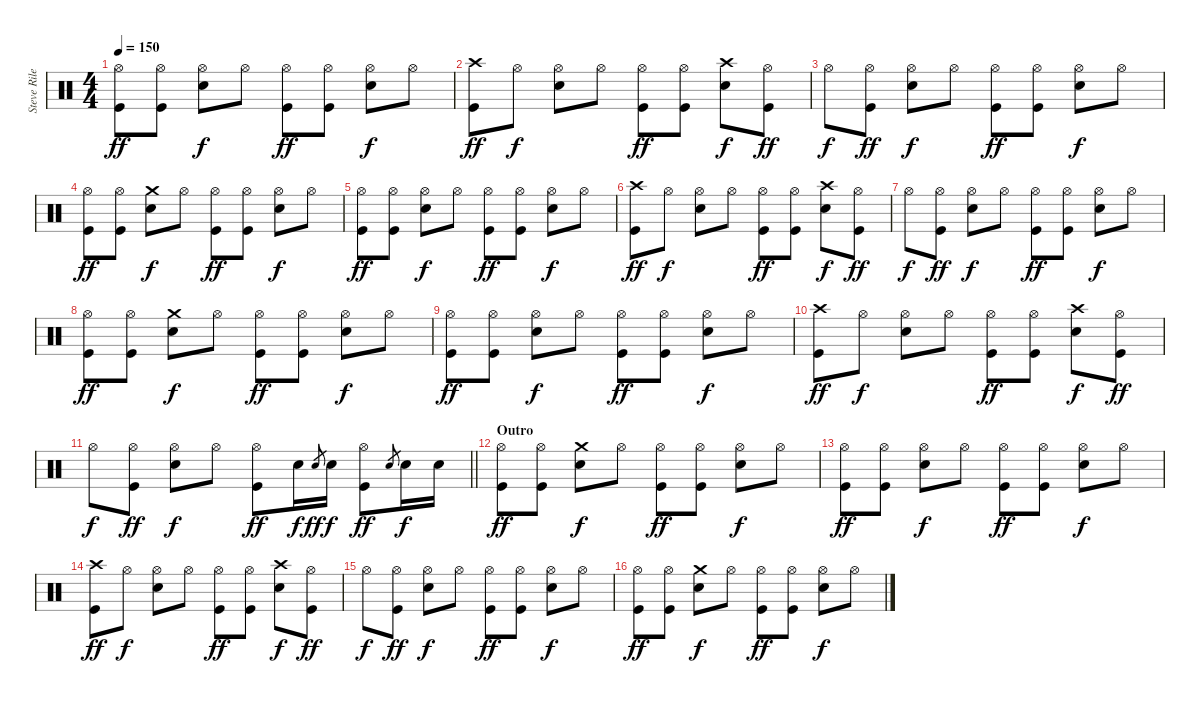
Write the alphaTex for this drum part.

\track ("Steve Riley" "Steve Rile") {instrument percussion}
\staff {score}
\articulation defaults
\ts (4 4)
\tempo 150
\clef neutral
\ks c
("Hi-Hat (open)" "Kick (hit)").8{dy ff} ("Hi-Hat (open)" "Kick (hit)").8 ("Hi-Hat (open)" "Snare (hit) 2").8{dy f} "Hi-Hat (open)".8 ("Hi-Hat (open)" "Kick (hit)").8{dy ff} ("Hi-Hat (open)" "Kick (hit)").8 ("Hi-Hat (open)" "Snare (hit) 2").8{dy f} "Hi-Hat (open)".8 |
("Crash high (hit)" "Kick (hit)").8{dy ff} "Hi-Hat (open)".8{dy f} ("Hi-Hat (open)" "Snare (hit) 2").8 "Hi-Hat (open)".8 ("Hi-Hat (open)" "Kick (hit)").8{dy ff} ("Hi-Hat (open)" "Kick (hit)").8 ("Crash high (hit)" "Snare (hit) 2").8{dy f} ("Hi-Hat (open)" "Kick (hit)").8{dy ff} |
"Hi-Hat (open)".8{dy f} ("Hi-Hat (open)" "Kick (hit)").8{dy ff} ("Hi-Hat (open)" "Snare (hit) 2").8{dy f} "Hi-Hat (open)".8 ("Hi-Hat (open)" "Kick (hit)").8{dy ff} ("Hi-Hat (open)" "Kick (hit)").8 ("Hi-Hat (open)" "Snare (hit) 2").8{dy f} "Hi-Hat (open)".8 |
("Hi-Hat (open)" "Kick (hit)").8{dy ff} ("Hi-Hat (open)" "Kick (hit)").8 ("Crash medium (hit)" "Snare (hit) 2").8{dy f} "Hi-Hat (open)".8 ("Hi-Hat (open)" "Kick (hit)").8{dy ff} ("Hi-Hat (open)" "Kick (hit)").8 ("Hi-Hat (open)" "Snare (hit) 2").8{dy f} "Hi-Hat (open)".8 |
("Hi-Hat (open)" "Kick (hit)").8{dy ff} ("Hi-Hat (open)" "Kick (hit)").8 ("Hi-Hat (open)" "Snare (hit) 2").8{dy f} "Hi-Hat (open)".8 ("Hi-Hat (open)" "Kick (hit)").8{dy ff} ("Hi-Hat (open)" "Kick (hit)").8 ("Hi-Hat (open)" "Snare (hit) 2").8{dy f} "Hi-Hat (open)".8 |
("Crash high (hit)" "Kick (hit)").8{dy ff} "Hi-Hat (open)".8{dy f} ("Hi-Hat (open)" "Snare (hit) 2").8 "Hi-Hat (open)".8 ("Hi-Hat (open)" "Kick (hit)").8{dy ff} ("Hi-Hat (open)" "Kick (hit)").8 ("Crash high (hit)" "Snare (hit) 2").8{dy f} ("Hi-Hat (open)" "Kick (hit)").8{dy ff} |
"Hi-Hat (open)".8{dy f} ("Hi-Hat (open)" "Kick (hit)").8{dy ff} ("Hi-Hat (open)" "Snare (hit) 2").8{dy f} "Hi-Hat (open)".8 ("Hi-Hat (open)" "Kick (hit)").8{dy ff} ("Hi-Hat (open)" "Kick (hit)").8 ("Hi-Hat (open)" "Snare (hit) 2").8{dy f} "Hi-Hat (open)".8 |
("Hi-Hat (open)" "Kick (hit)").8{dy ff} ("Hi-Hat (open)" "Kick (hit)").8 ("Crash medium (hit)" "Snare (hit) 2").8{dy f} "Hi-Hat (open)".8 ("Hi-Hat (open)" "Kick (hit)").8{dy ff} ("Hi-Hat (open)" "Kick (hit)").8 ("Hi-Hat (open)" "Snare (hit) 2").8{dy f} "Hi-Hat (open)".8 |
("Hi-Hat (open)" "Kick (hit)").8{dy ff} ("Hi-Hat (open)" "Kick (hit)").8 ("Hi-Hat (open)" "Snare (hit) 2").8{dy f} "Hi-Hat (open)".8 ("Hi-Hat (open)" "Kick (hit)").8{dy ff} ("Hi-Hat (open)" "Kick (hit)").8 ("Hi-Hat (open)" "Snare (hit) 2").8{dy f} "Hi-Hat (open)".8 |
("Crash high (hit)" "Kick (hit)").8{dy ff} "Hi-Hat (open)".8{dy f} ("Hi-Hat (open)" "Snare (hit) 2").8 "Hi-Hat (open)".8 ("Hi-Hat (open)" "Kick (hit)").8{dy ff} ("Hi-Hat (open)" "Kick (hit)").8 ("Crash high (hit)" "Snare (hit) 2").8{dy f} ("Hi-Hat (open)" "Kick (hit)").8{dy ff} |
\barLineRight lightlight "Hi-Hat (open)".8{dy f}
("Hi-Hat (open)" "Kick (hit)").8{dy ff} ("Hi-Hat (open)" "Snare (hit) 2").8{dy f} "Hi-Hat (open)".8 ("Hi-Hat (open)" "Kick (hit)").8{dy ff} "Snare (hit) 2".16{dy f} "Snare (hit) 2".8{gr dy ff} "Snare (hit) 2".16{dy f} ("Hi-Hat (open)" "Kick (hit)").8{dy ff} "Snare (hit) 2".8{gr} "Snare (hit) 2".16{dy f} "Snare (hit) 2".16 |
\section ("" "Outro")
("Hi-Hat (open)" "Kick (hit)").8{dy ff} ("Hi-Hat (open)" "Kick (hit)").8 ("Crash medium (hit)" "Snare (hit) 2").8{dy f} "Hi-Hat (open)".8 ("Hi-Hat (open)" "Kick (hit)").8{dy ff} ("Hi-Hat (open)" "Kick (hit)").8 ("Hi-Hat (open)" "Snare (hit) 2").8{dy f} "Hi-Hat (open)".8 |
("Hi-Hat (open)" "Kick (hit)").8{dy ff} ("Hi-Hat (open)" "Kick (hit)").8 ("Hi-Hat (open)" "Snare (hit) 2").8{dy f} "Hi-Hat (open)".8 ("Hi-Hat (open)" "Kick (hit)").8{dy ff} ("Hi-Hat (open)" "Kick (hit)").8 ("Hi-Hat (open)" "Snare (hit) 2").8{dy f} "Hi-Hat (open)".8 |
("Crash high (hit)" "Kick (hit)").8{dy ff} "Hi-Hat (open)".8{dy f} ("Hi-Hat (open)" "Snare (hit) 2").8 "Hi-Hat (open)".8 ("Hi-Hat (open)" "Kick (hit)").8{dy ff} ("Hi-Hat (open)" "Kick (hit)").8 ("Crash high (hit)" "Snare (hit) 2").8{dy f} ("Hi-Hat (open)" "Kick (hit)").8{dy ff} |
"Hi-Hat (open)".8{dy f} ("Hi-Hat (open)" "Kick (hit)").8{dy ff} ("Hi-Hat (open)" "Snare (hit) 2").8{dy f} "Hi-Hat (open)".8 ("Hi-Hat (open)" "Kick (hit)").8{dy ff} ("Hi-Hat (open)" "Kick (hit)").8 ("Hi-Hat (open)" "Snare (hit) 2").8{dy f} "Hi-Hat (open)".8 |
("Hi-Hat (open)" "Kick (hit)").8{dy ff} ("Hi-Hat (open)" "Kick (hit)").8 ("Crash medium (hit)" "Snare (hit) 2").8{dy f} "Hi-Hat (open)".8 ("Hi-Hat (open)" "Kick (hit)").8{dy ff} ("Hi-Hat (open)" "Kick (hit)").8 ("Hi-Hat (open)" "Snare (hit) 2").8{dy f} "Hi-Hat (open)".8
